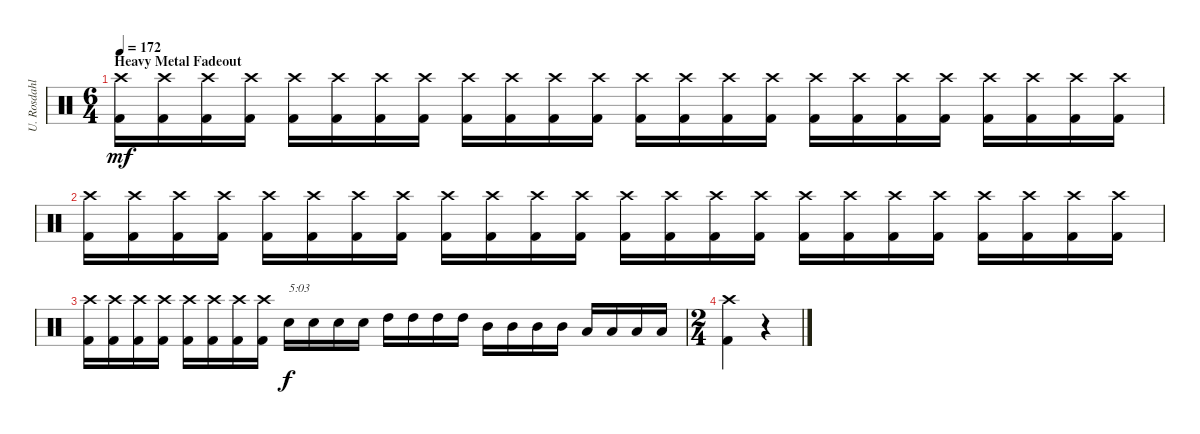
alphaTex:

\track ("U. Rosdahl" "U. Rosdahl") {instrument percussion}
\staff {score}
\articulation defaults
\ts (6 4)
\section ("" "Heavy Metal Fadeout")
\tempo 172
\clef neutral
\ks c
("Kick (hit) 2" "Crash high (hit)").16{dy mf} ("Kick (hit) 2" "Crash high (hit)").16 ("Kick (hit) 2" "Crash high (hit)").16 ("Kick (hit) 2" "Crash high (hit)").16 ("Kick (hit) 2" "Crash high (hit)").16 ("Kick (hit) 2" "Crash high (hit)").16 ("Kick (hit) 2" "Crash high (hit)").16 ("Kick (hit) 2" "Crash high (hit)").16 ("Kick (hit) 2" "Crash high (hit)").16 ("Kick (hit) 2" "Crash high (hit)").16 ("Kick (hit) 2" "Crash high (hit)").16 ("Kick (hit) 2" "Crash high (hit)").16 ("Kick (hit) 2" "Crash high (hit)").16 ("Kick (hit) 2" "Crash high (hit)").16 ("Kick (hit) 2" "Crash high (hit)").16 ("Kick (hit) 2" "Crash high (hit)").16 ("Kick (hit) 2" "Crash high (hit)").16 ("Kick (hit) 2" "Crash high (hit)").16 ("Kick (hit) 2" "Crash high (hit)").16 ("Kick (hit) 2" "Crash high (hit)").16 ("Kick (hit) 2" "Crash high (hit)").16 ("Kick (hit) 2" "Crash high (hit)").16 ("Kick (hit) 2" "Crash high (hit)").16 ("Kick (hit) 2" "Crash high (hit)").16 |
("Kick (hit) 2" "Crash high (hit)").16 ("Kick (hit) 2" "Crash high (hit)").16 ("Kick (hit) 2" "Crash high (hit)").16 ("Kick (hit) 2" "Crash high (hit)").16 ("Kick (hit) 2" "Crash high (hit)").16 ("Kick (hit) 2" "Crash high (hit)").16 ("Kick (hit) 2" "Crash high (hit)").16 ("Kick (hit) 2" "Crash high (hit)").16 ("Kick (hit) 2" "Crash high (hit)").16 ("Kick (hit) 2" "Crash high (hit)").16 ("Kick (hit) 2" "Crash high (hit)").16 ("Kick (hit) 2" "Crash high (hit)").16 ("Kick (hit) 2" "Crash high (hit)").16 ("Kick (hit) 2" "Crash high (hit)").16 ("Kick (hit) 2" "Crash high (hit)").16 ("Kick (hit) 2" "Crash high (hit)").16 ("Kick (hit) 2" "Crash high (hit)").16 ("Kick (hit) 2" "Crash high (hit)").16 ("Kick (hit) 2" "Crash high (hit)").16 ("Kick (hit) 2" "Crash high (hit)").16 ("Kick (hit) 2" "Crash high (hit)").16 ("Kick (hit) 2" "Crash high (hit)").16 ("Kick (hit) 2" "Crash high (hit)").16 ("Kick (hit) 2" "Crash high (hit)").16 |
("Kick (hit) 2" "Crash high (hit)").16 ("Kick (hit) 2" "Crash high (hit)").16 ("Kick (hit) 2" "Crash high (hit)").16 ("Kick (hit) 2" "Crash high (hit)").16 ("Kick (hit) 2" "Crash high (hit)").16 ("Kick (hit) 2" "Crash high (hit)").16 ("Kick (hit) 2" "Crash high (hit)").16 ("Kick (hit) 2" "Crash high (hit)").16 "Electric Snare (hit)".16{txt "5:03" dy f} "Electric Snare (hit)".16 "Electric Snare (hit)".16 "Electric Snare (hit)".16 "High Tom (hit)".16 "High Tom (hit)".16 "High Tom (hit)".16 "High Tom (hit)".16 "Mid Tom (hit)".16 "Mid Tom (hit)".16 "Mid Tom (hit)".16 "Mid Tom (hit)".16 "Low Tom (hit)".16 "Low Tom (hit)".16 "Low Tom (hit)".16 "Low Tom (hit)".16 |
\ts (2 4)
("Kick (hit) 2" "Crash high (hit)").4 r.4
